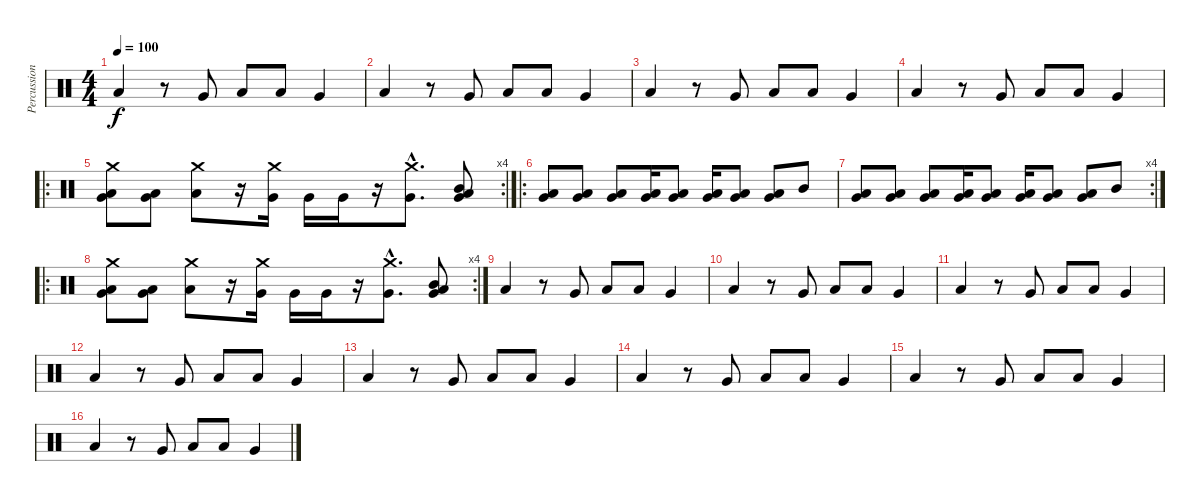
\track ("Percussions" "Percussion") {instrument percussion}
\staff {score}
\articulation defaults
\ts (4 4)
\tempo 100
\clef neutral
\ks c "Low Floor Tom (hit)".4{dy f}
r.8 "Very Low Tom (hit)".8 "Low Tom (hit)".8 "Low Tom (hit)".8 "Very Low Tom (hit)".4 |
"Low Floor Tom (hit)".4 r.8 "Very Low Tom (hit)".8 "Low Tom (hit)".8 "Low Tom (hit)".8 "Very Low Tom (hit)".4 |
"Low Floor Tom (hit)".4 r.8 "Very Low Tom (hit)".8 "Low Tom (hit)".8 "Low Tom (hit)".8 "Very Low Tom (hit)".4 |
"Low Floor Tom (hit)".4 r.8 "Very Low Tom (hit)".8 "Low Tom (hit)".8 "Low Tom (hit)".8 "Very Low Tom (hit)".4 |
\ro
\rc 4
("Low Floor Tom (hit)" "Very Low Tom (hit)" "Crash medium (hit)").8 ("Low Floor Tom (hit)" "Very Low Tom (hit)").8 ("Low Floor Tom (hit)" "Crash medium (hit)").8 r.16 ("Very Low Tom (hit)" "Crash medium (hit)").16 "Very Low Tom (hit)".16 "Very Low Tom (hit)".16 r.16 ("Very Low Tom (hit)"{hac} "Crash medium (hit)"{hac}).8{d} ("Low Floor Tom (hit)" "Very Low Tom (hit)" "Mid Tom (hit)").8 |
\ro
("Low Floor Tom (hit)" "Very Low Tom (hit)").8 ("Low Floor Tom (hit)" "Very Low Tom (hit)").8 ("Low Floor Tom (hit)" "Very Low Tom (hit)").8 ("Low Floor Tom (hit)" "Very Low Tom (hit)").16 ("Low Floor Tom (hit)" "Very Low Tom (hit)").8 ("Low Floor Tom (hit)" "Very Low Tom (hit)").16 ("Low Floor Tom (hit)" "Very Low Tom (hit)").8 ("Low Floor Tom (hit)" "Very Low Tom (hit)").8 "Mid Tom (hit)".8 |
\rc 4
("Low Floor Tom (hit)" "Very Low Tom (hit)").8 ("Low Floor Tom (hit)" "Very Low Tom (hit)").8 ("Low Floor Tom (hit)" "Very Low Tom (hit)").8 ("Low Floor Tom (hit)" "Very Low Tom (hit)").16 ("Low Floor Tom (hit)" "Very Low Tom (hit)").8 ("Low Floor Tom (hit)" "Very Low Tom (hit)").16 ("Low Floor Tom (hit)" "Very Low Tom (hit)").8 ("Low Floor Tom (hit)" "Very Low Tom (hit)").8 "Mid Tom (hit)".8 |
\ro
\rc 4
("Low Floor Tom (hit)" "Very Low Tom (hit)" "Crash medium (hit)").8 ("Low Floor Tom (hit)" "Very Low Tom (hit)").8 ("Low Floor Tom (hit)" "Crash medium (hit)").8 r.16 ("Very Low Tom (hit)" "Crash medium (hit)").16 "Very Low Tom (hit)".16 "Very Low Tom (hit)".16 r.16 ("Very Low Tom (hit)"{hac} "Crash medium (hit)"{hac}).8{d} ("Low Floor Tom (hit)" "Very Low Tom (hit)" "Mid Tom (hit)").8 |
"Low Floor Tom (hit)".4 r.8 "Very Low Tom (hit)".8 "Low Tom (hit)".8 "Low Tom (hit)".8 "Very Low Tom (hit)".4 |
"Low Floor Tom (hit)".4 r.8 "Very Low Tom (hit)".8 "Low Tom (hit)".8 "Low Tom (hit)".8 "Very Low Tom (hit)".4 |
"Low Floor Tom (hit)".4 r.8 "Very Low Tom (hit)".8 "Low Tom (hit)".8 "Low Tom (hit)".8 "Very Low Tom (hit)".4 |
"Low Floor Tom (hit)".4 r.8 "Very Low Tom (hit)".8 "Low Tom (hit)".8 "Low Tom (hit)".8 "Very Low Tom (hit)".4 |
"Low Floor Tom (hit)".4 r.8 "Very Low Tom (hit)".8 "Low Tom (hit)".8 "Low Tom (hit)".8 "Very Low Tom (hit)".4 |
"Low Floor Tom (hit)".4 r.8 "Very Low Tom (hit)".8 "Low Tom (hit)".8 "Low Tom (hit)".8 "Very Low Tom (hit)".4 |
"Low Floor Tom (hit)".4 r.8 "Very Low Tom (hit)".8 "Low Tom (hit)".8 "Low Tom (hit)".8 "Very Low Tom (hit)".4 |
"Low Floor Tom (hit)".4 r.8 "Very Low Tom (hit)".8 "Low Tom (hit)".8 "Low Tom (hit)".8 "Very Low Tom (hit)".4
